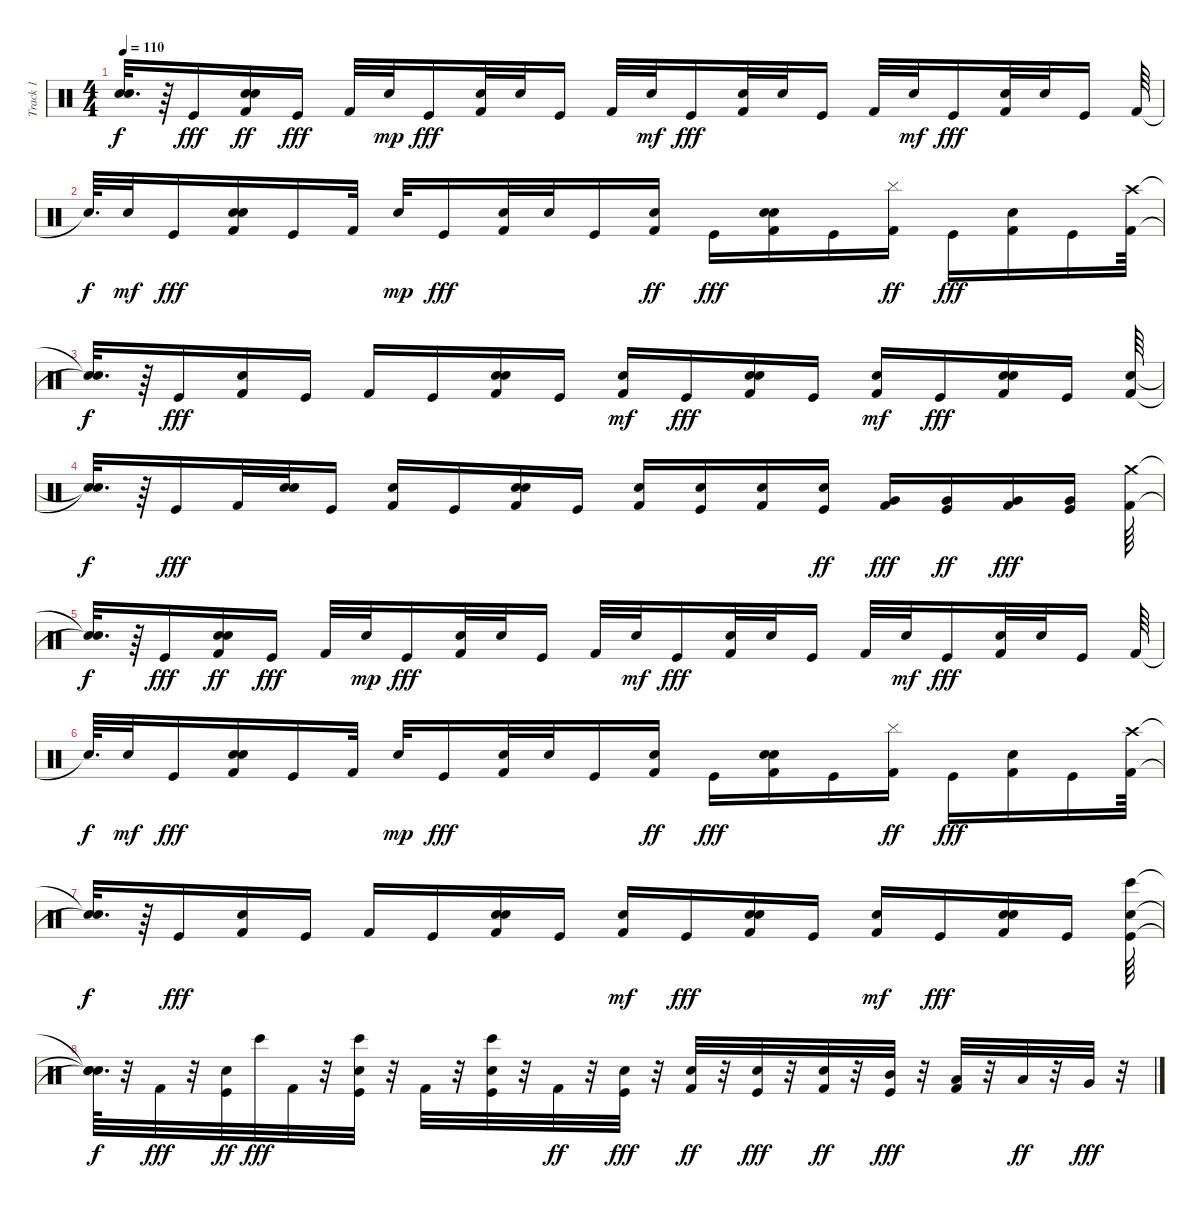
\track ("Track 1" "Track 1") {mute instrument percussion}
\staff {score}
\articulation defaults
\ts (4 4)
\tempo 110
\clef neutral
\ks c
("Snare (hit)"{t} "Snare (hit)"{t}).32{d dy f} r.64 "Kick (hit)".16{dy fff} ("Kick (hit) 2" "Snare (hit) 2" "Snare (hit)").16{dy ff} "Kick (hit)".16{dy fff} "Kick (hit) 2".32 "Snare (hit)".32{dy mp} "Kick (hit)".16{dy fff} ("Kick (hit) 2" "Snare (hit) 2").32 "Snare (hit)".32 "Kick (hit)".16 "Kick (hit) 2".32 "Snare (hit)".32{dy mf} "Kick (hit)".16{dy fff} ("Kick (hit) 2" "Snare (hit) 2").32 "Snare (hit)".32 "Kick (hit)".16 "Kick (hit) 2".32 "Snare (hit)".32{dy mf} "Kick (hit)".16{dy fff} ("Kick (hit) 2" "Snare (hit) 2").32 "Snare (hit)".32 "Kick (hit)".16 "Kick (hit) 2".64 |
"Snare (hit)"{t}.64{d dy f} "Snare (hit)".32{dy mf} "Kick (hit)".16{dy fff} ("Kick (hit) 2" "Snare (hit) 2" "Snare (hit)").16 "Kick (hit)".16 "Kick (hit) 2".32 "Snare (hit)".32{dy mp} "Kick (hit)".16{dy fff} ("Kick (hit) 2" "Snare (hit)").32 "Snare (hit) 2".32 "Kick (hit)".16 ("Kick (hit) 2" "Snare (hit)").16{dy ff} "Kick (hit)".16{dy fff} ("Kick (hit) 2" "Snare (hit)" "Snare (hit) 2").16 "Kick (hit)".16 ("Kick (hit) 2" "Cymbal (hit)").16{dy ff} "Kick (hit)".16{dy fff} ("Kick (hit) 2" "Snare (hit) 2").16 "Kick (hit)".16 ("Kick (hit) 2" "Crash high (hit)").64 |
("Snare (hit)"{t} "Snare (hit)"{t}).32{d dy f} r.64 "Kick (hit)".16{dy fff} ("Kick (hit) 2" "Snare (hit) 2").16 "Kick (hit)".16 "Kick (hit) 2".16 "Kick (hit)".16 ("Kick (hit) 2" "Snare (hit)" "Snare (hit) 2").16 "Kick (hit)".16 ("Kick (hit) 2" "Snare (hit)").16{dy mf} "Kick (hit)".16{dy fff} ("Kick (hit) 2" "Snare (hit) 2" "Snare (hit)").16 "Kick (hit)".16 ("Kick (hit) 2" "Snare (hit)").16{dy mf} "Kick (hit)".16{dy fff} ("Kick (hit) 2" "Snare (hit) 2" "Snare (hit)").16 "Kick (hit)".16 ("Kick (hit) 2" "Snare (hit)").64 |
("Snare (hit)"{t} "Snare (hit)"{t}).32{d dy f} r.64 "Kick (hit)".16{dy fff} "Kick (hit) 2".32 ("Snare (hit) 2" "Snare (hit)").32 "Kick (hit)".16 ("Kick (hit) 2" "Snare (hit)").16 "Kick (hit)".16 ("Snare (hit)" "Kick (hit) 2" "Snare (hit) 2").16 "Kick (hit)".16 ("Kick (hit) 2" "Snare (hit) 2").16 ("Kick (hit)" "Snare (hit) 2").16 ("Kick (hit) 2" "Snare (hit) 2").16 ("Kick (hit)" "Snare (hit) 2").16{dy ff} ("Kick (hit) 2" "Very Low Tom (hit)").16{dy fff} ("Kick (hit)" "Very Low Tom (hit)").16{dy ff} ("Kick (hit) 2" "Very Low Tom (hit)").16{dy fff} ("Kick (hit)" "Very Low Tom (hit)").16 ("Kick (hit) 2" "Crash medium (hit)").64 |
("Snare (hit)"{t} "Snare (hit)"{t}).32{d dy f} r.64 "Kick (hit)".16{dy fff} ("Kick (hit) 2" "Snare (hit) 2" "Snare (hit)").16{dy ff} "Kick (hit)".16{dy fff} "Kick (hit) 2".32 "Snare (hit)".32{dy mp} "Kick (hit)".16{dy fff} ("Kick (hit) 2" "Snare (hit) 2").32 "Snare (hit)".32 "Kick (hit)".16 "Kick (hit) 2".32 "Snare (hit)".32{dy mf} "Kick (hit)".16{dy fff} ("Kick (hit) 2" "Snare (hit) 2").32 "Snare (hit)".32 "Kick (hit)".16 "Kick (hit) 2".32 "Snare (hit)".32{dy mf} "Kick (hit)".16{dy fff} ("Kick (hit) 2" "Snare (hit) 2").32 "Snare (hit)".32 "Kick (hit)".16 "Kick (hit) 2".64 |
"Snare (hit)"{t}.64{d dy f} "Snare (hit)".32{dy mf} "Kick (hit)".16{dy fff} ("Kick (hit) 2" "Snare (hit) 2" "Snare (hit)").16 "Kick (hit)".16 "Kick (hit) 2".32 "Snare (hit)".32{dy mp} "Kick (hit)".16{dy fff} ("Kick (hit) 2" "Snare (hit)").32 "Snare (hit) 2".32 "Kick (hit)".16 ("Kick (hit) 2" "Snare (hit)").16{dy ff} "Kick (hit)".16{dy fff} ("Kick (hit) 2" "Snare (hit)" "Snare (hit) 2").16 "Kick (hit)".16 ("Kick (hit) 2" "Cymbal (hit)").16{dy ff} "Kick (hit)".16{dy fff} ("Kick (hit) 2" "Snare (hit) 2").16 "Kick (hit)".16 ("Kick (hit) 2" "Crash high (hit)").64 |
("Snare (hit)"{t} "Snare (hit)"{t}).32{d dy f} r.64 "Kick (hit)".16{dy fff} ("Kick (hit) 2" "Snare (hit) 2").16 "Kick (hit)".16 "Kick (hit) 2".16 "Kick (hit)".16 ("Kick (hit) 2" "Snare (hit)" "Snare (hit) 2").16 "Kick (hit)".16 ("Kick (hit) 2" "Snare (hit)").16{dy mf} "Kick (hit)".16{dy fff} ("Kick (hit) 2" "Snare (hit) 2" "Snare (hit)").16 "Kick (hit)".16 ("Kick (hit) 2" "Snare (hit)").16{dy mf} "Kick (hit)".16{dy fff} ("Kick (hit) 2" "Snare (hit) 2" "Snare (hit)").16 "Kick (hit)".16 ("Kick (hit)" "Snare (hit) 2" "Bongo High (hit)").64 |
("Snare (hit)"{t} "Snare (hit)"{t} "Snare (hit)"{t}).64{d dy f} r.32 "Kick (hit) 2".32{dy fff} r.32 ("Kick (hit)" "Snare (hit) 2").32{dy ff} "Bongo High (hit)".32{dy fff} "Kick (hit) 2".32 r.32 ("Kick (hit)" "Snare (hit) 2" "Bongo High (hit)").32 r.32 "Kick (hit) 2".32 r.32 ("Snare (hit) 2" "Kick (hit)" "Bongo High (hit)").32 r.32 "Kick (hit) 2".32{dy ff} r.32 ("Kick (hit)" "Snare (hit) 2").32{dy fff} r.32 ("Snare (hit) 2" "Kick (hit) 2").32{dy ff} r.32 ("Kick (hit)" "Snare (hit) 2").32{dy fff} r.32 ("Kick (hit) 2" "Snare (hit) 2").32{dy ff} r.32 ("Kick (hit)" "Mid Tom (hit)").32{dy fff} r.32 ("Kick (hit) 2" "Low Tom (hit)").32 r.32 "Low Tom (hit)".32{dy ff} r.32 "Very Low Tom (hit)".32{dy fff} r.32
